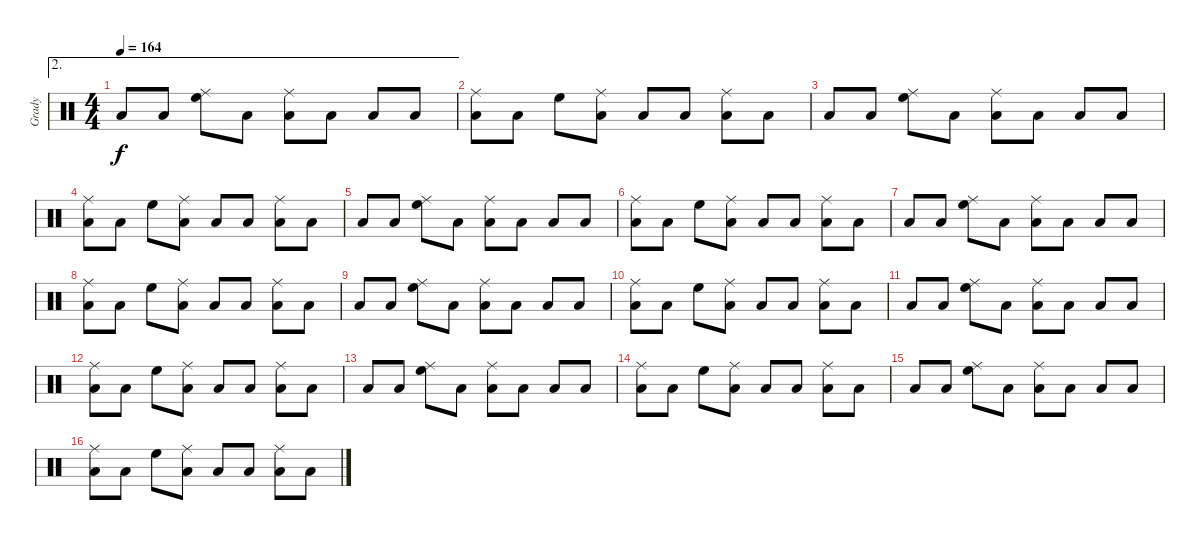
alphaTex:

\track ("Grady" "Grady") {instrument percussion}
\staff {score}
\articulation defaults
\ae 2
\ts (4 4)
\tempo 164
\clef neutral
\ks c "Low Tom (hit)".8{dy f} "Low Tom (hit)".8
("High Floor Tom (hit)" "Ride (middle)").8 "Low Tom (hit)".8 ("Ride (middle)" "Low Tom (hit)").8 "Low Tom (hit)".8 "Low Tom (hit)".8 "Low Tom (hit)".8 |
("Ride (middle)" "Low Tom (hit)").8 "Low Tom (hit)".8 "High Floor Tom (hit)".8 ("Ride (middle)" "Low Tom (hit)").8 "Low Tom (hit)".8 "Low Tom (hit)".8 ("Ride (middle)" "Low Tom (hit)").8 "Low Tom (hit)".8 |
"Low Tom (hit)".8 "Low Tom (hit)".8 ("High Floor Tom (hit)" "Ride (middle)").8 "Low Tom (hit)".8 ("Ride (middle)" "Low Tom (hit)").8 "Low Tom (hit)".8 "Low Tom (hit)".8 "Low Tom (hit)".8 |
("Ride (middle)" "Low Tom (hit)").8 "Low Tom (hit)".8 "High Floor Tom (hit)".8 ("Ride (middle)" "Low Tom (hit)").8 "Low Tom (hit)".8 "Low Tom (hit)".8 ("Ride (middle)" "Low Tom (hit)").8 "Low Tom (hit)".8 |
"Low Tom (hit)".8 "Low Tom (hit)".8 ("High Floor Tom (hit)" "Ride (middle)").8 "Low Tom (hit)".8 ("Ride (middle)" "Low Tom (hit)").8 "Low Tom (hit)".8 "Low Tom (hit)".8 "Low Tom (hit)".8 |
("Ride (middle)" "Low Tom (hit)").8 "Low Tom (hit)".8 "High Floor Tom (hit)".8 ("Ride (middle)" "Low Tom (hit)").8 "Low Tom (hit)".8 "Low Tom (hit)".8 ("Ride (middle)" "Low Tom (hit)").8 "Low Tom (hit)".8 |
"Low Tom (hit)".8 "Low Tom (hit)".8 ("High Floor Tom (hit)" "Ride (middle)").8 "Low Tom (hit)".8 ("Ride (middle)" "Low Tom (hit)").8 "Low Tom (hit)".8 "Low Tom (hit)".8 "Low Tom (hit)".8 |
("Ride (middle)" "Low Tom (hit)").8 "Low Tom (hit)".8 "High Floor Tom (hit)".8 ("Ride (middle)" "Low Tom (hit)").8 "Low Tom (hit)".8 "Low Tom (hit)".8 ("Ride (middle)" "Low Tom (hit)").8 "Low Tom (hit)".8 |
"Low Tom (hit)".8 "Low Tom (hit)".8 ("High Floor Tom (hit)" "Ride (middle)").8 "Low Tom (hit)".8 ("Ride (middle)" "Low Tom (hit)").8 "Low Tom (hit)".8 "Low Tom (hit)".8 "Low Tom (hit)".8 |
("Ride (middle)" "Low Tom (hit)").8 "Low Tom (hit)".8 "High Floor Tom (hit)".8 ("Ride (middle)" "Low Tom (hit)").8 "Low Tom (hit)".8 "Low Tom (hit)".8 ("Ride (middle)" "Low Tom (hit)").8 "Low Tom (hit)".8 |
"Low Tom (hit)".8 "Low Tom (hit)".8 ("High Floor Tom (hit)" "Ride (middle)").8 "Low Tom (hit)".8 ("Ride (middle)" "Low Tom (hit)").8 "Low Tom (hit)".8 "Low Tom (hit)".8 "Low Tom (hit)".8 |
("Ride (middle)" "Low Tom (hit)").8 "Low Tom (hit)".8 "High Floor Tom (hit)".8 ("Ride (middle)" "Low Tom (hit)").8 "Low Tom (hit)".8 "Low Tom (hit)".8 ("Ride (middle)" "Low Tom (hit)").8 "Low Tom (hit)".8 |
"Low Tom (hit)".8 "Low Tom (hit)".8 ("High Floor Tom (hit)" "Ride (middle)").8 "Low Tom (hit)".8 ("Ride (middle)" "Low Tom (hit)").8 "Low Tom (hit)".8 "Low Tom (hit)".8 "Low Tom (hit)".8 |
("Ride (middle)" "Low Tom (hit)").8 "Low Tom (hit)".8 "High Floor Tom (hit)".8 ("Ride (middle)" "Low Tom (hit)").8 "Low Tom (hit)".8 "Low Tom (hit)".8 ("Ride (middle)" "Low Tom (hit)").8 "Low Tom (hit)".8 |
"Low Tom (hit)".8 "Low Tom (hit)".8 ("High Floor Tom (hit)" "Ride (middle)").8 "Low Tom (hit)".8 ("Ride (middle)" "Low Tom (hit)").8 "Low Tom (hit)".8 "Low Tom (hit)".8 "Low Tom (hit)".8 |
("Ride (middle)" "Low Tom (hit)").8 "Low Tom (hit)".8 "High Floor Tom (hit)".8 ("Ride (middle)" "Low Tom (hit)").8 "Low Tom (hit)".8 "Low Tom (hit)".8 ("Ride (middle)" "Low Tom (hit)").8 "Low Tom (hit)".8
